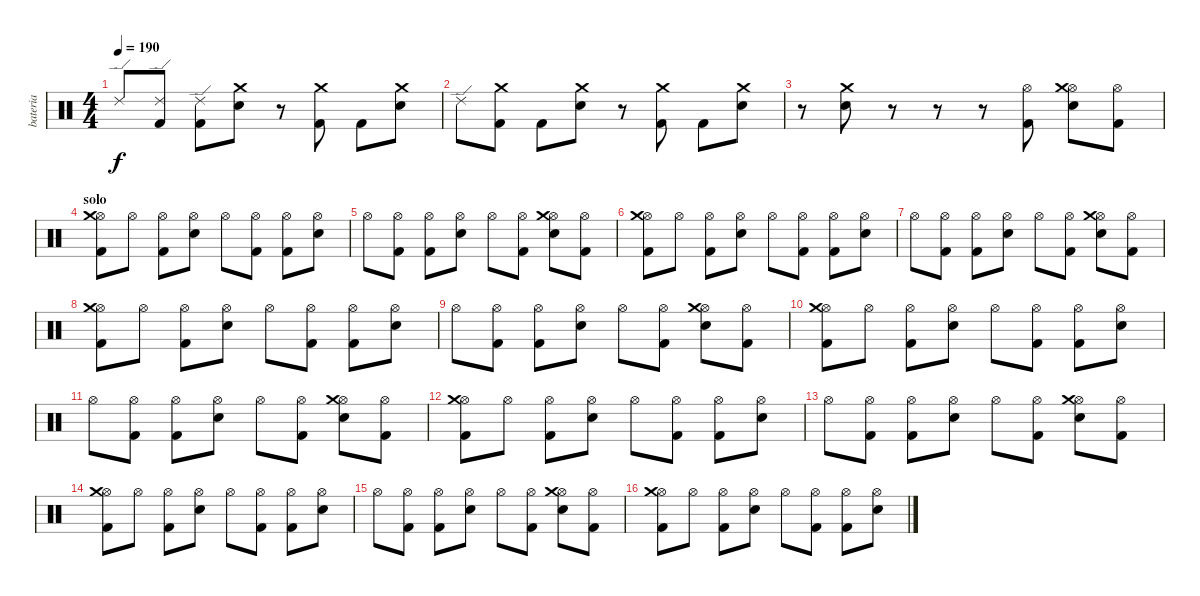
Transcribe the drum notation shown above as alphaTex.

\track ("bateria" "bateria") {instrument percussion}
\staff {score}
\articulation defaults
\ts (4 4)
\tempo 190
\clef neutral
\ks c "Ride (edge) 2".8{dy f}
("Ride (edge) 2" "Kick (hit) 2").8 ("Ride (edge) 2" "Kick (hit) 2").8 ("Crash medium (hit)" "Electric Snare (hit)").8 r.8 ("Crash medium (hit)" "Kick (hit) 2").8 "Kick (hit) 2".8 ("Crash medium (hit)" "Electric Snare (hit)").8 |
"Ride (edge) 2".8 ("Crash medium (hit)" "Kick (hit) 2").8 "Kick (hit) 2".8 ("Crash medium (hit)" "Electric Snare (hit)").8 r.8 ("Crash medium (hit)" "Kick (hit) 2").8 "Kick (hit) 2".8 ("Crash medium (hit)" "Electric Snare (hit)").8 |
r.8 ("Crash medium (hit)" "Electric Snare (hit)").8 r.8 r.8 r.8 ("Hi-Hat (open)" "Kick (hit) 2").8 ("Hi-Hat (open)" "Electric Snare (hit)" "Crash medium (hit)").8 ("Hi-Hat (open)" "Kick (hit) 2").8 |
\section ("" "solo")
("Hi-Hat (open)" "Kick (hit) 2" "Crash medium (hit)").8 "Hi-Hat (open)".8 ("Hi-Hat (open)" "Kick (hit) 2").8 ("Hi-Hat (open)" "Electric Snare (hit)").8 "Hi-Hat (open)".8 ("Hi-Hat (open)" "Kick (hit) 2").8 ("Hi-Hat (open)" "Kick (hit) 2").8 ("Hi-Hat (open)" "Electric Snare (hit)").8 |
"Hi-Hat (open)".8 ("Hi-Hat (open)" "Kick (hit) 2").8 ("Hi-Hat (open)" "Kick (hit) 2").8 ("Hi-Hat (open)" "Electric Snare (hit)").8 "Hi-Hat (open)".8 ("Hi-Hat (open)" "Kick (hit) 2").8 ("Hi-Hat (open)" "Electric Snare (hit)" "Crash medium (hit)").8 ("Hi-Hat (open)" "Kick (hit) 2").8 |
("Hi-Hat (open)" "Kick (hit) 2" "Crash medium (hit)").8 "Hi-Hat (open)".8 ("Hi-Hat (open)" "Kick (hit) 2").8 ("Hi-Hat (open)" "Electric Snare (hit)").8 "Hi-Hat (open)".8 ("Hi-Hat (open)" "Kick (hit) 2").8 ("Hi-Hat (open)" "Kick (hit) 2").8 ("Hi-Hat (open)" "Electric Snare (hit)").8 |
"Hi-Hat (open)".8 ("Hi-Hat (open)" "Kick (hit) 2").8 ("Hi-Hat (open)" "Kick (hit) 2").8 ("Hi-Hat (open)" "Electric Snare (hit)").8 "Hi-Hat (open)".8 ("Hi-Hat (open)" "Kick (hit) 2").8 ("Hi-Hat (open)" "Electric Snare (hit)" "Crash medium (hit)").8 ("Hi-Hat (open)" "Kick (hit) 2").8 |
("Hi-Hat (open)" "Kick (hit) 2" "Crash medium (hit)").8 "Hi-Hat (open)".8 ("Hi-Hat (open)" "Kick (hit) 2").8 ("Hi-Hat (open)" "Electric Snare (hit)").8 "Hi-Hat (open)".8 ("Hi-Hat (open)" "Kick (hit) 2").8 ("Hi-Hat (open)" "Kick (hit) 2").8 ("Hi-Hat (open)" "Electric Snare (hit)").8 |
"Hi-Hat (open)".8 ("Hi-Hat (open)" "Kick (hit) 2").8 ("Hi-Hat (open)" "Kick (hit) 2").8 ("Hi-Hat (open)" "Electric Snare (hit)").8 "Hi-Hat (open)".8 ("Hi-Hat (open)" "Kick (hit) 2").8 ("Hi-Hat (open)" "Electric Snare (hit)" "Crash medium (hit)").8 ("Hi-Hat (open)" "Kick (hit) 2").8 |
("Hi-Hat (open)" "Kick (hit) 2" "Crash medium (hit)").8 "Hi-Hat (open)".8 ("Hi-Hat (open)" "Kick (hit) 2").8 ("Hi-Hat (open)" "Electric Snare (hit)").8 "Hi-Hat (open)".8 ("Hi-Hat (open)" "Kick (hit) 2").8 ("Hi-Hat (open)" "Kick (hit) 2").8 ("Hi-Hat (open)" "Electric Snare (hit)").8 |
"Hi-Hat (open)".8 ("Hi-Hat (open)" "Kick (hit) 2").8 ("Hi-Hat (open)" "Kick (hit) 2").8 ("Hi-Hat (open)" "Electric Snare (hit)").8 "Hi-Hat (open)".8 ("Hi-Hat (open)" "Kick (hit) 2").8 ("Hi-Hat (open)" "Electric Snare (hit)" "Crash medium (hit)").8 ("Hi-Hat (open)" "Kick (hit) 2").8 |
("Hi-Hat (open)" "Kick (hit) 2" "Crash medium (hit)").8 "Hi-Hat (open)".8 ("Hi-Hat (open)" "Kick (hit) 2").8 ("Hi-Hat (open)" "Electric Snare (hit)").8 "Hi-Hat (open)".8 ("Hi-Hat (open)" "Kick (hit) 2").8 ("Hi-Hat (open)" "Kick (hit) 2").8 ("Hi-Hat (open)" "Electric Snare (hit)").8 |
"Hi-Hat (open)".8 ("Hi-Hat (open)" "Kick (hit) 2").8 ("Hi-Hat (open)" "Kick (hit) 2").8 ("Hi-Hat (open)" "Electric Snare (hit)").8 "Hi-Hat (open)".8 ("Hi-Hat (open)" "Kick (hit) 2").8 ("Hi-Hat (open)" "Electric Snare (hit)" "Crash medium (hit)").8 ("Hi-Hat (open)" "Kick (hit) 2").8 |
("Hi-Hat (open)" "Kick (hit) 2" "Crash medium (hit)").8 "Hi-Hat (open)".8 ("Hi-Hat (open)" "Kick (hit) 2").8 ("Hi-Hat (open)" "Electric Snare (hit)").8 "Hi-Hat (open)".8 ("Hi-Hat (open)" "Kick (hit) 2").8 ("Hi-Hat (open)" "Kick (hit) 2").8 ("Hi-Hat (open)" "Electric Snare (hit)").8 |
"Hi-Hat (open)".8 ("Hi-Hat (open)" "Kick (hit) 2").8 ("Hi-Hat (open)" "Kick (hit) 2").8 ("Hi-Hat (open)" "Electric Snare (hit)").8 "Hi-Hat (open)".8 ("Hi-Hat (open)" "Kick (hit) 2").8 ("Hi-Hat (open)" "Electric Snare (hit)" "Crash medium (hit)").8 ("Hi-Hat (open)" "Kick (hit) 2").8 |
("Hi-Hat (open)" "Kick (hit) 2" "Crash medium (hit)").8 "Hi-Hat (open)".8 ("Hi-Hat (open)" "Kick (hit) 2").8 ("Hi-Hat (open)" "Electric Snare (hit)").8 "Hi-Hat (open)".8 ("Hi-Hat (open)" "Kick (hit) 2").8 ("Hi-Hat (open)" "Kick (hit) 2").8 ("Hi-Hat (open)" "Electric Snare (hit)").8
